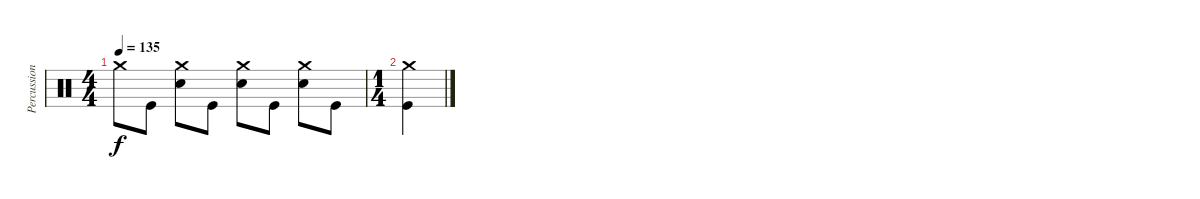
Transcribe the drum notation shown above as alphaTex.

\track ("Percussion" "Percussion") {instrument percussion}
\staff {score}
\articulation defaults
\ts (4 4)
\tempo 135
\clef neutral
\ks c "Crash medium (hit)".8{dy f} "Kick (hit)".8
("Snare (hit) 2" "Crash medium (hit)").8 "Kick (hit)".8 ("Snare (hit) 2" "Crash medium (hit)").8 "Kick (hit)".8 ("Snare (hit) 2" "Crash medium (hit)").8 "Kick (hit)".8 |
\ts (1 4)
("Kick (hit)" "Crash medium (hit)").4
